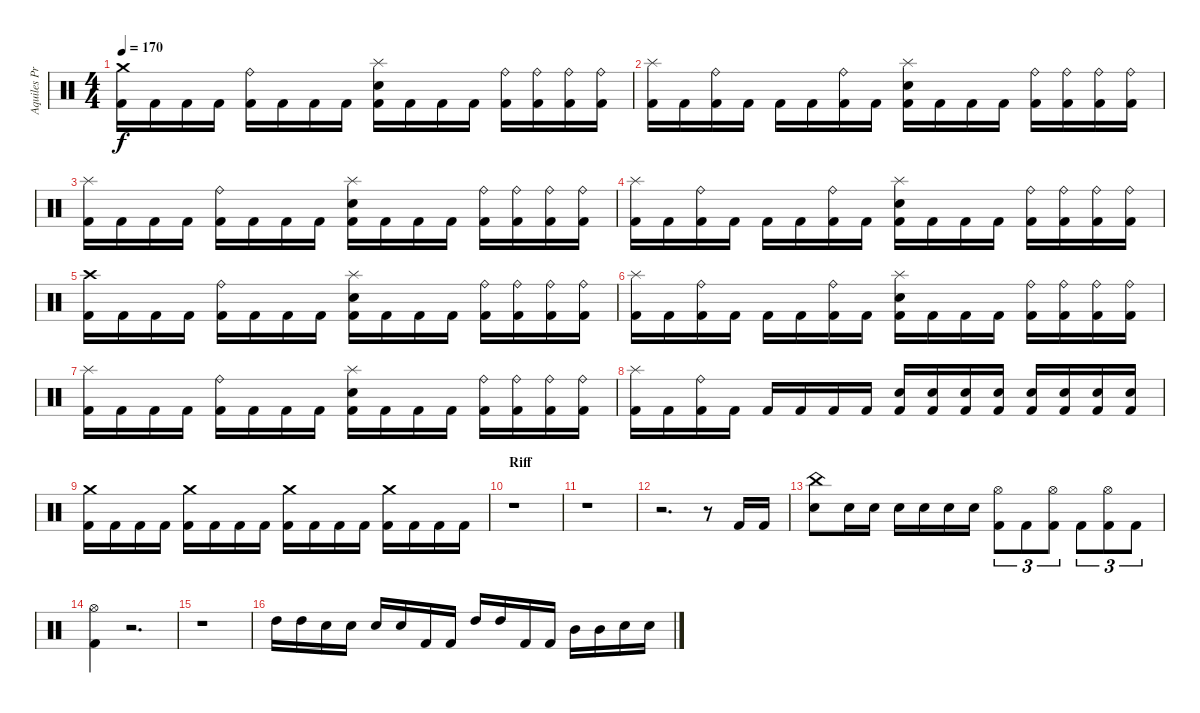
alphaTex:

\track ("Aquiles Priester" "Aquiles Pr") {instrument percussion}
\staff {score}
\articulation defaults
\ts (4 4)
\tempo 170
\clef neutral
\ks c
("Crash medium (hit)" "Kick (hit) 2").16{dy f} "Kick (hit) 2".16 "Kick (hit) 2".16 "Kick (hit) 2".16 ("Ride (bell)" "Kick (hit) 2").16 "Kick (hit) 2".16 "Kick (hit) 2".16 "Kick (hit) 2".16 ("Electric Snare (hit)" "Splash (hit)" "Kick (hit) 2").16 "Kick (hit) 2".16 "Kick (hit) 2".16 "Kick (hit) 2".16 ("Ride (bell)" "Kick (hit) 2").16 ("Ride (bell)" "Kick (hit) 2").16 ("Ride (bell)" "Kick (hit) 2").16 ("Ride (bell)" "Kick (hit) 2").16 |
("Splash (hit)" "Kick (hit) 2").16 "Kick (hit) 2".16 ("Ride (bell)" "Kick (hit) 2").16 "Kick (hit) 2".16 "Kick (hit) 2".16 "Kick (hit) 2".16 ("Ride (bell)" "Kick (hit) 2").16 "Kick (hit) 2".16 ("Electric Snare (hit)" "Splash (hit)" "Kick (hit) 2").16 "Kick (hit) 2".16 "Kick (hit) 2".16 "Kick (hit) 2".16 ("Ride (bell)" "Kick (hit) 2").16 ("Ride (bell)" "Kick (hit) 2").16 ("Ride (bell)" "Kick (hit) 2").16 ("Ride (bell)" "Kick (hit) 2").16 |
("Splash (hit)" "Kick (hit) 2").16 "Kick (hit) 2".16 "Kick (hit) 2".16 "Kick (hit) 2".16 ("Ride (bell)" "Kick (hit) 2").16 "Kick (hit) 2".16 "Kick (hit) 2".16 "Kick (hit) 2".16 ("Electric Snare (hit)" "Splash (hit)" "Kick (hit) 2").16 "Kick (hit) 2".16 "Kick (hit) 2".16 "Kick (hit) 2".16 ("Ride (bell)" "Kick (hit) 2").16 ("Ride (bell)" "Kick (hit) 2").16 ("Ride (bell)" "Kick (hit) 2").16 ("Ride (bell)" "Kick (hit) 2").16 |
("Splash (hit)" "Kick (hit) 2").16 "Kick (hit) 2".16 ("Ride (bell)" "Kick (hit) 2").16 "Kick (hit) 2".16 "Kick (hit) 2".16 "Kick (hit) 2".16 ("Ride (bell)" "Kick (hit) 2").16 "Kick (hit) 2".16 ("Electric Snare (hit)" "Splash (hit)" "Kick (hit) 2").16 "Kick (hit) 2".16 "Kick (hit) 2".16 "Kick (hit) 2".16 ("Ride (bell)" "Kick (hit) 2").16 ("Ride (bell)" "Kick (hit) 2").16 ("Ride (bell)" "Kick (hit) 2").16 ("Ride (bell)" "Kick (hit) 2").16 |
("Crash high (hit)" "Kick (hit) 2").16 "Kick (hit) 2".16 "Kick (hit) 2".16 "Kick (hit) 2".16 ("Ride (bell)" "Kick (hit) 2").16 "Kick (hit) 2".16 "Kick (hit) 2".16 "Kick (hit) 2".16 ("Electric Snare (hit)" "Splash (hit)" "Kick (hit) 2").16 "Kick (hit) 2".16 "Kick (hit) 2".16 "Kick (hit) 2".16 ("Ride (bell)" "Kick (hit) 2").16 ("Ride (bell)" "Kick (hit) 2").16 ("Ride (bell)" "Kick (hit) 2").16 ("Ride (bell)" "Kick (hit) 2").16 |
("Splash (hit)" "Kick (hit) 2").16 "Kick (hit) 2".16 ("Ride (bell)" "Kick (hit) 2").16 "Kick (hit) 2".16 "Kick (hit) 2".16 "Kick (hit) 2".16 ("Ride (bell)" "Kick (hit) 2").16 "Kick (hit) 2".16 ("Electric Snare (hit)" "Splash (hit)" "Kick (hit) 2").16 "Kick (hit) 2".16 "Kick (hit) 2".16 "Kick (hit) 2".16 ("Ride (bell)" "Kick (hit) 2").16 ("Ride (bell)" "Kick (hit) 2").16 ("Ride (bell)" "Kick (hit) 2").16 ("Ride (bell)" "Kick (hit) 2").16 |
("Splash (hit)" "Kick (hit) 2").16 "Kick (hit) 2".16 "Kick (hit) 2".16 "Kick (hit) 2".16 ("Ride (bell)" "Kick (hit) 2").16 "Kick (hit) 2".16 "Kick (hit) 2".16 "Kick (hit) 2".16 ("Electric Snare (hit)" "Splash (hit)" "Kick (hit) 2").16 "Kick (hit) 2".16 "Kick (hit) 2".16 "Kick (hit) 2".16 ("Ride (bell)" "Kick (hit) 2").16 ("Ride (bell)" "Kick (hit) 2").16 ("Ride (bell)" "Kick (hit) 2").16 ("Ride (bell)" "Kick (hit) 2").16 |
("Splash (hit)" "Kick (hit) 2").16 "Kick (hit) 2".16 ("Ride (bell)" "Kick (hit) 2").16 "Kick (hit) 2".16 "Kick (hit) 2".16 "Kick (hit) 2".16 "Kick (hit) 2".16 "Kick (hit) 2".16 ("Electric Snare (hit)" "Kick (hit) 2").16 ("Electric Snare (hit)" "Kick (hit) 2").16 ("Electric Snare (hit)" "Kick (hit) 2").16 ("Electric Snare (hit)" "Kick (hit) 2").16 ("Electric Snare (hit)" "Kick (hit) 2").16 ("Electric Snare (hit)" "Kick (hit) 2").16 ("Electric Snare (hit)" "Kick (hit) 2").16 ("Electric Snare (hit)" "Kick (hit) 2").16 |
("Crash medium (hit)" "Kick (hit) 2").16 "Kick (hit) 2".16 "Kick (hit) 2".16 "Kick (hit) 2".16 ("Crash medium (hit)" "Kick (hit) 2").16 "Kick (hit) 2".16 "Kick (hit) 2".16 "Kick (hit) 2".16 ("Crash medium (hit)" "Kick (hit) 2").16 "Kick (hit) 2".16 "Kick (hit) 2".16 "Kick (hit) 2".16 ("Crash medium (hit)" "Kick (hit) 2").16 "Kick (hit) 2".16 "Kick (hit) 2".16 "Kick (hit) 2".16 |
\section ("" "Riff")
r.1 |
r.1 |
r.2{d} r.8 "Kick (hit) 2".16 "Kick (hit) 2".16 |
("China (hit)" "Electric Snare (hit)").8 "Electric Snare (hit)".16 "Electric Snare (hit)".16 "Electric Snare (hit)".16 "Electric Snare (hit)".16 "Electric Snare (hit)".16 "Electric Snare (hit)".16 ("Hi-Hat (open)" "Kick (hit) 2").8{tu (3 2)} "Kick (hit) 2".8{tu (3 2)} ("Hi-Hat (open)" "Kick (hit) 2").8{tu (3 2)} "Kick (hit) 2".8{tu (3 2)} ("Hi-Hat (open)" "Kick (hit) 2").8{tu (3 2)} "Kick (hit) 2".8{tu (3 2)} |
("Hi-Hat (open)" "Kick (hit) 2").4 r.2{d} |
r.1 |
"High Tom (hit)".16 "High Tom (hit)".16 "Electric Snare (hit)".16 "Electric Snare (hit)".16 "Electric Snare (hit)".16 "Electric Snare (hit)".16 "Kick (hit) 2".16 "Kick (hit) 2".16 "High Tom (hit)".16 "High Tom (hit)".16 "Kick (hit) 2".16 "Kick (hit) 2".16 "Mid Tom (hit)".16 "Mid Tom (hit)".16 "Electric Snare (hit)".16 "Electric Snare (hit)".16
